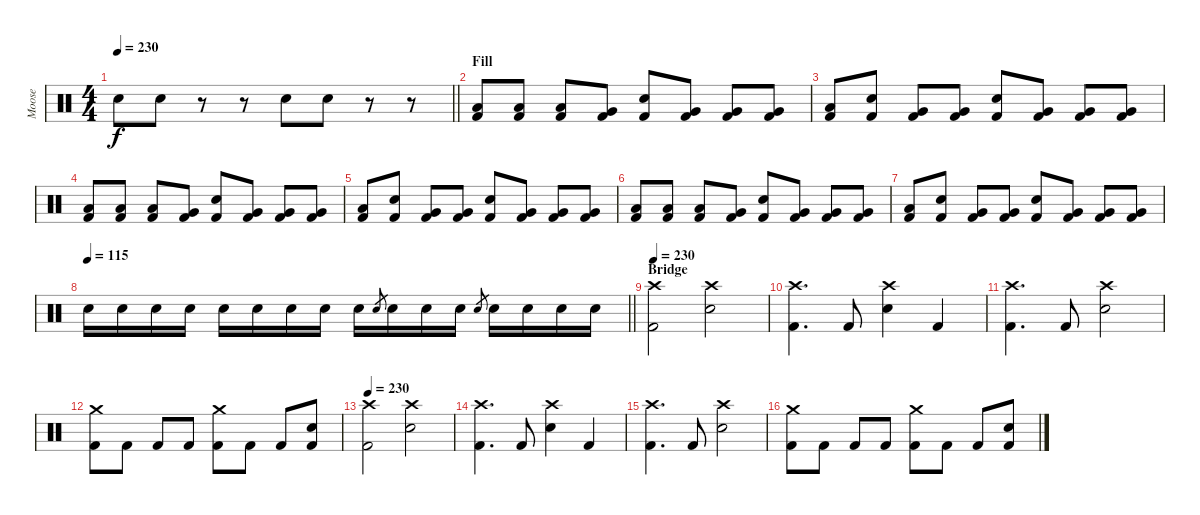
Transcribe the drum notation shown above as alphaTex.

\track ("Moose" "Moose") {instrument percussion}
\staff {score}
\articulation defaults
\ts (4 4)
\tempo 230
\clef neutral
\barLineRight lightlight
\ks c "Snare (hit) 2".8{dy f} "Snare (hit) 2".8
r.8 r.8 "Snare (hit) 2".8 "Snare (hit) 2".8 r.8 r.8 |
\section ("" "Fill")
("Low Tom (hit)" "Kick (hit) 2").8 ("Low Tom (hit)" "Kick (hit) 2").8 ("Low Tom (hit)" "Kick (hit) 2").8 ("Very Low Tom (hit)" "Kick (hit) 2").8 ("Snare (hit) 2" "Kick (hit) 2").8 ("Very Low Tom (hit)" "Kick (hit) 2").8 ("Very Low Tom (hit)" "Kick (hit) 2").8 ("Very Low Tom (hit)" "Kick (hit) 2").8 |
("Low Tom (hit)" "Kick (hit) 2").8 ("Snare (hit) 2" "Kick (hit) 2").8 ("Very Low Tom (hit)" "Kick (hit) 2").8 ("Very Low Tom (hit)" "Kick (hit) 2").8 ("Snare (hit) 2" "Kick (hit) 2").8 ("Very Low Tom (hit)" "Kick (hit) 2").8 ("Very Low Tom (hit)" "Kick (hit) 2").8 ("Very Low Tom (hit)" "Kick (hit) 2").8 |
("Low Tom (hit)" "Kick (hit) 2").8 ("Low Tom (hit)" "Kick (hit) 2").8 ("Low Tom (hit)" "Kick (hit) 2").8 ("Very Low Tom (hit)" "Kick (hit) 2").8 ("Snare (hit) 2" "Kick (hit) 2").8 ("Very Low Tom (hit)" "Kick (hit) 2").8 ("Very Low Tom (hit)" "Kick (hit) 2").8 ("Very Low Tom (hit)" "Kick (hit) 2").8 |
("Low Tom (hit)" "Kick (hit) 2").8 ("Snare (hit) 2" "Kick (hit) 2").8 ("Very Low Tom (hit)" "Kick (hit) 2").8 ("Very Low Tom (hit)" "Kick (hit) 2").8 ("Snare (hit) 2" "Kick (hit) 2").8 ("Very Low Tom (hit)" "Kick (hit) 2").8 ("Very Low Tom (hit)" "Kick (hit) 2").8 ("Very Low Tom (hit)" "Kick (hit) 2").8 |
("Low Tom (hit)" "Kick (hit) 2").8 ("Low Tom (hit)" "Kick (hit) 2").8 ("Low Tom (hit)" "Kick (hit) 2").8 ("Very Low Tom (hit)" "Kick (hit) 2").8 ("Snare (hit) 2" "Kick (hit) 2").8 ("Very Low Tom (hit)" "Kick (hit) 2").8 ("Very Low Tom (hit)" "Kick (hit) 2").8 ("Very Low Tom (hit)" "Kick (hit) 2").8 |
("Low Tom (hit)" "Kick (hit) 2").8 ("Snare (hit) 2" "Kick (hit) 2").8 ("Very Low Tom (hit)" "Kick (hit) 2").8 ("Very Low Tom (hit)" "Kick (hit) 2").8 ("Snare (hit) 2" "Kick (hit) 2").8 ("Very Low Tom (hit)" "Kick (hit) 2").8 ("Very Low Tom (hit)" "Kick (hit) 2").8 ("Very Low Tom (hit)" "Kick (hit) 2").8 |
\tempo 115
\barLineRight lightlight "Snare (hit) 2".16 "Snare (hit) 2".16 "Snare (hit) 2".16 "Snare (hit) 2".16 "Snare (hit) 2".16 "Snare (hit) 2".16 "Snare (hit) 2".16 "Snare (hit) 2".16 "Snare (hit) 2".16 "Snare (hit) 2".8{gr} "Snare (hit) 2".16 "Snare (hit) 2".16 "Snare (hit) 2".16 "Snare (hit) 2".8{gr} "Snare (hit) 2".16 "Snare (hit) 2".16 "Snare (hit) 2".16 "Snare (hit) 2".16
|
\section ("" "Bridge")
\tempo 230
("Crash high (hit)" "Kick (hit) 2").2 ("Crash high (hit)" "Snare (hit) 2").2 |
("Crash high (hit)" "Kick (hit) 2").4{d} "Kick (hit) 2".8 ("Crash high (hit)" "Snare (hit) 2").4 "Kick (hit) 2".4 |
("Crash high (hit)" "Kick (hit) 2").4{d} "Kick (hit) 2".8 ("Crash high (hit)" "Snare (hit) 2").2 |
("Crash medium (hit)" "Kick (hit) 2").8 "Kick (hit) 2".8 "Kick (hit) 2".8 "Kick (hit) 2".8 ("Crash medium (hit)" "Kick (hit) 2").8 "Kick (hit) 2".8 "Kick (hit) 2".8 ("Snare (hit) 2" "Kick (hit) 2").8 |
\tempo 230
("Crash high (hit)" "Kick (hit) 2").2 ("Crash high (hit)" "Snare (hit) 2").2 |
("Crash high (hit)" "Kick (hit) 2").4{d} "Kick (hit) 2".8 ("Crash high (hit)" "Snare (hit) 2").4 "Kick (hit) 2".4 |
("Crash high (hit)" "Kick (hit) 2").4{d} "Kick (hit) 2".8 ("Crash high (hit)" "Snare (hit) 2").2 |
("Crash medium (hit)" "Kick (hit) 2").8 "Kick (hit) 2".8 "Kick (hit) 2".8 "Kick (hit) 2".8 ("Crash medium (hit)" "Kick (hit) 2").8 "Kick (hit) 2".8 "Kick (hit) 2".8 ("Snare (hit) 2" "Kick (hit) 2").8
